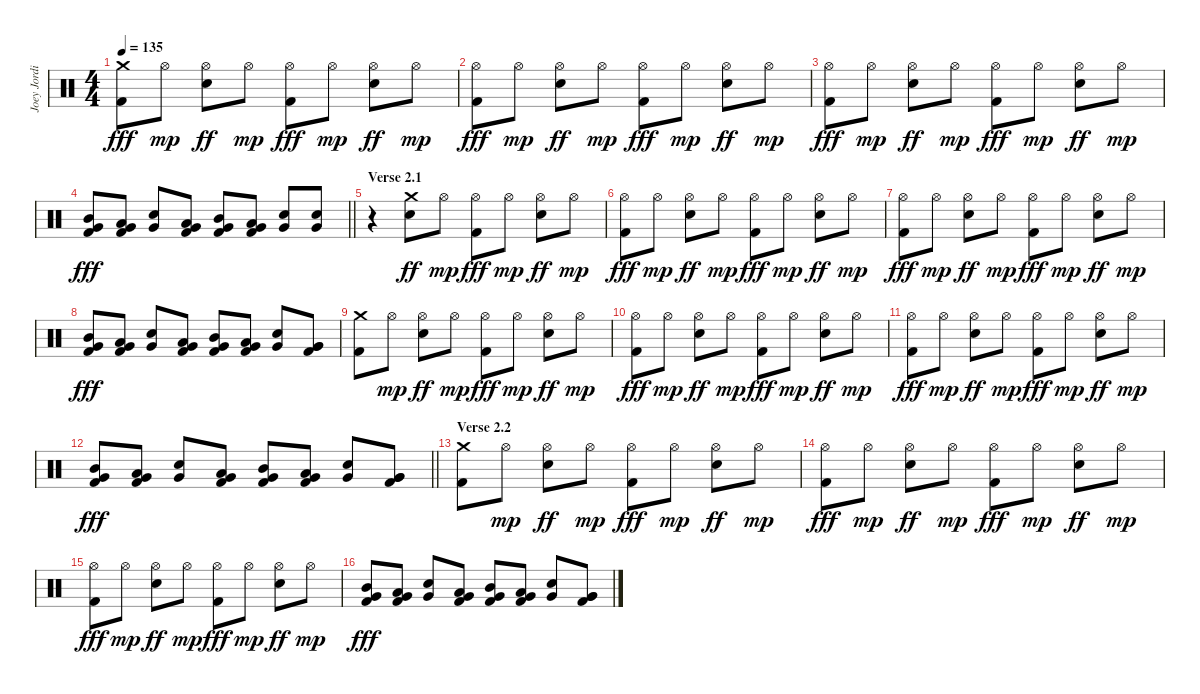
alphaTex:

\track ("Joey Jordison" "Joey Jordi") {instrument percussion}
\staff {score}
\articulation defaults
\ts (4 4)
\tempo 135
\clef neutral
\ks c
("Crash medium (hit)" "Kick (hit) 2").8{dy fff} "Hi-Hat (open)".8{dy mp} ("Hi-Hat (open)" "Electric Snare (hit)").8{dy ff} "Hi-Hat (open)".8{dy mp} ("Hi-Hat (open)" "Kick (hit) 2").8{dy fff} "Hi-Hat (open)".8{dy mp} ("Hi-Hat (open)" "Electric Snare (hit)").8{dy ff} "Hi-Hat (open)".8{dy mp} |
("Hi-Hat (open)" "Kick (hit) 2").8{dy fff} "Hi-Hat (open)".8{dy mp} ("Hi-Hat (open)" "Electric Snare (hit)").8{dy ff} "Hi-Hat (open)".8{dy mp} ("Hi-Hat (open)" "Kick (hit) 2").8{dy fff} "Hi-Hat (open)".8{dy mp} ("Hi-Hat (open)" "Electric Snare (hit)").8{dy ff} "Hi-Hat (open)".8{dy mp} |
("Hi-Hat (open)" "Kick (hit) 2").8{dy fff} "Hi-Hat (open)".8{dy mp} ("Hi-Hat (open)" "Electric Snare (hit)").8{dy ff} "Hi-Hat (open)".8{dy mp} ("Hi-Hat (open)" "Kick (hit) 2").8{dy fff} "Hi-Hat (open)".8{dy mp} ("Hi-Hat (open)" "Electric Snare (hit)").8{dy ff} "Hi-Hat (open)".8{dy mp} |
\barLineRight lightlight
("Mid Tom (hit)" "Very Low Tom (hit)" "Kick (hit) 2").8{dy fff} ("Low Tom (hit)" "Very Low Tom (hit)" "Kick (hit) 2").8 ("Electric Snare (hit)" "Very Low Tom (hit)").8 ("Low Tom (hit)" "Very Low Tom (hit)" "Kick (hit) 2").8 ("Mid Tom (hit)" "Very Low Tom (hit)" "Kick (hit) 2").8 ("Low Tom (hit)" "Very Low Tom (hit)" "Kick (hit) 2").8 ("Electric Snare (hit)" "Very Low Tom (hit)").8 ("Electric Snare (hit)" "Very Low Tom (hit)").8 |
\section ("" "Verse 2.1")
r.4 ("Crash medium (hit)" "Electric Snare (hit)").8{dy ff} "Hi-Hat (open)".8{dy mp} ("Hi-Hat (open)" "Kick (hit) 2").8{dy fff} "Hi-Hat (open)".8{dy mp} ("Hi-Hat (open)" "Electric Snare (hit)").8{dy ff} "Hi-Hat (open)".8{dy mp} |
("Hi-Hat (open)" "Kick (hit) 2").8{dy fff} "Hi-Hat (open)".8{dy mp} ("Hi-Hat (open)" "Electric Snare (hit)").8{dy ff} "Hi-Hat (open)".8{dy mp} ("Hi-Hat (open)" "Kick (hit) 2").8{dy fff} "Hi-Hat (open)".8{dy mp} ("Hi-Hat (open)" "Electric Snare (hit)").8{dy ff} "Hi-Hat (open)".8{dy mp} |
("Hi-Hat (open)" "Kick (hit) 2").8{dy fff} "Hi-Hat (open)".8{dy mp} ("Hi-Hat (open)" "Electric Snare (hit)").8{dy ff} "Hi-Hat (open)".8{dy mp} ("Hi-Hat (open)" "Kick (hit) 2").8{dy fff} "Hi-Hat (open)".8{dy mp} ("Hi-Hat (open)" "Electric Snare (hit)").8{dy ff} "Hi-Hat (open)".8{dy mp} |
("Mid Tom (hit)" "Very Low Tom (hit)" "Kick (hit) 2").8{dy fff} ("Low Tom (hit)" "Very Low Tom (hit)" "Kick (hit) 2").8 ("Electric Snare (hit)" "Very Low Tom (hit)").8 ("Low Tom (hit)" "Very Low Tom (hit)" "Kick (hit) 2").8 ("Mid Tom (hit)" "Very Low Tom (hit)" "Kick (hit) 2").8 ("Low Tom (hit)" "Very Low Tom (hit)" "Kick (hit) 2").8 ("Electric Snare (hit)" "Very Low Tom (hit)").8 ("Very Low Tom (hit)" "Very Low Tom (hit)" "Kick (hit) 2").8 |
("Crash medium (hit)" "Kick (hit) 2").8 "Hi-Hat (open)".8{dy mp} ("Hi-Hat (open)" "Electric Snare (hit)").8{dy ff} "Hi-Hat (open)".8{dy mp} ("Hi-Hat (open)" "Kick (hit) 2").8{dy fff} "Hi-Hat (open)".8{dy mp} ("Hi-Hat (open)" "Electric Snare (hit)").8{dy ff} "Hi-Hat (open)".8{dy mp} |
("Hi-Hat (open)" "Kick (hit) 2").8{dy fff} "Hi-Hat (open)".8{dy mp} ("Hi-Hat (open)" "Electric Snare (hit)").8{dy ff} "Hi-Hat (open)".8{dy mp} ("Hi-Hat (open)" "Kick (hit) 2").8{dy fff} "Hi-Hat (open)".8{dy mp} ("Hi-Hat (open)" "Electric Snare (hit)").8{dy ff} "Hi-Hat (open)".8{dy mp} |
("Hi-Hat (open)" "Kick (hit) 2").8{dy fff} "Hi-Hat (open)".8{dy mp} ("Hi-Hat (open)" "Electric Snare (hit)").8{dy ff} "Hi-Hat (open)".8{dy mp} ("Hi-Hat (open)" "Kick (hit) 2").8{dy fff} "Hi-Hat (open)".8{dy mp} ("Hi-Hat (open)" "Electric Snare (hit)").8{dy ff} "Hi-Hat (open)".8{dy mp} |
\barLineRight lightlight
("Mid Tom (hit)" "Very Low Tom (hit)" "Kick (hit) 2").8{dy fff} ("Low Tom (hit)" "Very Low Tom (hit)" "Kick (hit) 2").8 ("Electric Snare (hit)" "Very Low Tom (hit)").8 ("Low Tom (hit)" "Very Low Tom (hit)" "Kick (hit) 2").8 ("Mid Tom (hit)" "Very Low Tom (hit)" "Kick (hit) 2").8 ("Low Tom (hit)" "Very Low Tom (hit)" "Kick (hit) 2").8 ("Electric Snare (hit)" "Very Low Tom (hit)").8 ("Very Low Tom (hit)" "Very Low Tom (hit)" "Kick (hit) 2").8 |
\section ("" "Verse 2.2")
("Crash medium (hit)" "Kick (hit) 2").8 "Hi-Hat (open)".8{dy mp} ("Hi-Hat (open)" "Electric Snare (hit)").8{dy ff} "Hi-Hat (open)".8{dy mp} ("Hi-Hat (open)" "Kick (hit) 2").8{dy fff} "Hi-Hat (open)".8{dy mp} ("Hi-Hat (open)" "Electric Snare (hit)").8{dy ff} "Hi-Hat (open)".8{dy mp} |
("Hi-Hat (open)" "Kick (hit) 2").8{dy fff} "Hi-Hat (open)".8{dy mp} ("Hi-Hat (open)" "Electric Snare (hit)").8{dy ff} "Hi-Hat (open)".8{dy mp} ("Hi-Hat (open)" "Kick (hit) 2").8{dy fff} "Hi-Hat (open)".8{dy mp} ("Hi-Hat (open)" "Electric Snare (hit)").8{dy ff} "Hi-Hat (open)".8{dy mp} |
("Hi-Hat (open)" "Kick (hit) 2").8{dy fff} "Hi-Hat (open)".8{dy mp} ("Hi-Hat (open)" "Electric Snare (hit)").8{dy ff} "Hi-Hat (open)".8{dy mp} ("Hi-Hat (open)" "Kick (hit) 2").8{dy fff} "Hi-Hat (open)".8{dy mp} ("Hi-Hat (open)" "Electric Snare (hit)").8{dy ff} "Hi-Hat (open)".8{dy mp} |
("Mid Tom (hit)" "Very Low Tom (hit)" "Kick (hit) 2").8{dy fff} ("Low Tom (hit)" "Very Low Tom (hit)" "Kick (hit) 2").8 ("Electric Snare (hit)" "Very Low Tom (hit)").8 ("Low Tom (hit)" "Very Low Tom (hit)" "Kick (hit) 2").8 ("Mid Tom (hit)" "Very Low Tom (hit)" "Kick (hit) 2").8 ("Low Tom (hit)" "Very Low Tom (hit)" "Kick (hit) 2").8 ("Electric Snare (hit)" "Very Low Tom (hit)").8 ("Very Low Tom (hit)" "Very Low Tom (hit)" "Kick (hit) 2").8
